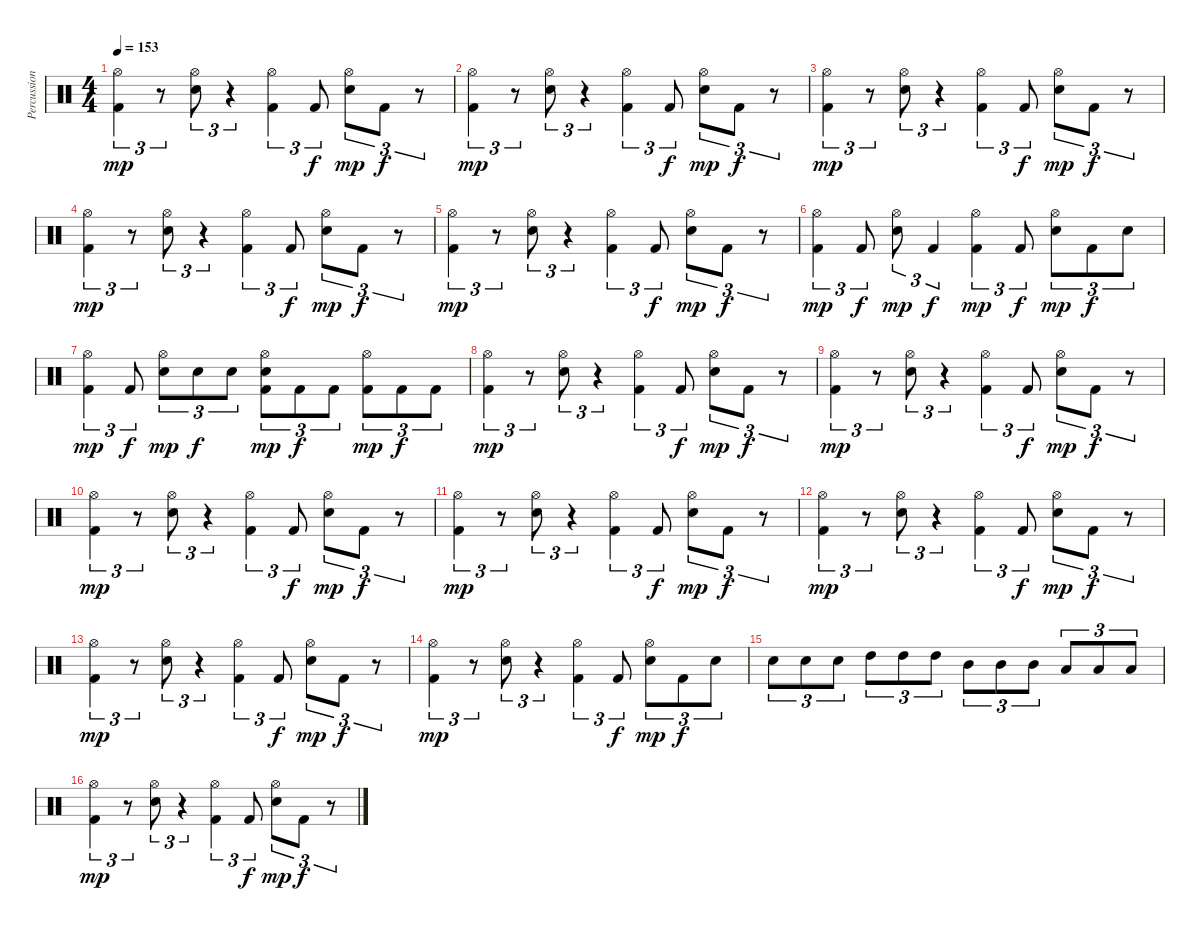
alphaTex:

\track ("Percussion" "Percussion") {instrument percussion}
\staff {score}
\articulation defaults
\ts (4 4)
\tempo 153
\clef neutral
\ks c
("Hi-Hat (open)" "Kick (hit) 2").4{tu (3 2) dy mp} r.8{tu (3 2)} ("Hi-Hat (open)" "Electric Snare (hit)").8{tu (3 2)} r.4{tu (3 2)} ("Hi-Hat (open)" "Kick (hit) 2").4{tu (3 2)} "Kick (hit) 2".8{tu (3 2) dy f} ("Hi-Hat (open)" "Electric Snare (hit)").8{tu (3 2) dy mp} "Kick (hit) 2".8{tu (3 2) dy f} r.8{tu (3 2)} |
("Hi-Hat (open)" "Kick (hit) 2").4{tu (3 2) dy mp} r.8{tu (3 2)} ("Hi-Hat (open)" "Electric Snare (hit)").8{tu (3 2)} r.4{tu (3 2)} ("Hi-Hat (open)" "Kick (hit) 2").4{tu (3 2)} "Kick (hit) 2".8{tu (3 2) dy f} ("Hi-Hat (open)" "Electric Snare (hit)").8{tu (3 2) dy mp} "Kick (hit) 2".8{tu (3 2) dy f} r.8{tu (3 2)} |
("Hi-Hat (open)" "Kick (hit) 2").4{tu (3 2) dy mp} r.8{tu (3 2)} ("Hi-Hat (open)" "Electric Snare (hit)").8{tu (3 2)} r.4{tu (3 2)} ("Hi-Hat (open)" "Kick (hit) 2").4{tu (3 2)} "Kick (hit) 2".8{tu (3 2) dy f} ("Hi-Hat (open)" "Electric Snare (hit)").8{tu (3 2) dy mp} "Kick (hit) 2".8{tu (3 2) dy f} r.8{tu (3 2)} |
("Hi-Hat (open)" "Kick (hit) 2").4{tu (3 2) dy mp} r.8{tu (3 2)} ("Hi-Hat (open)" "Electric Snare (hit)").8{tu (3 2)} r.4{tu (3 2)} ("Hi-Hat (open)" "Kick (hit) 2").4{tu (3 2)} "Kick (hit) 2".8{tu (3 2) dy f} ("Hi-Hat (open)" "Electric Snare (hit)").8{tu (3 2) dy mp} "Kick (hit) 2".8{tu (3 2) dy f} r.8{tu (3 2)} |
("Hi-Hat (open)" "Kick (hit) 2").4{tu (3 2) dy mp} r.8{tu (3 2)} ("Hi-Hat (open)" "Electric Snare (hit)").8{tu (3 2)} r.4{tu (3 2)} ("Hi-Hat (open)" "Kick (hit) 2").4{tu (3 2)} "Kick (hit) 2".8{tu (3 2) dy f} ("Hi-Hat (open)" "Electric Snare (hit)").8{tu (3 2) dy mp} "Kick (hit) 2".8{tu (3 2) dy f} r.8{tu (3 2)} |
("Hi-Hat (open)" "Kick (hit) 2").4{tu (3 2) dy mp} "Kick (hit) 2".8{tu (3 2) dy f} ("Hi-Hat (open)" "Electric Snare (hit)").8{tu (3 2) dy mp} "Kick (hit) 2".4{tu (3 2) dy f} ("Hi-Hat (open)" "Kick (hit) 2").4{tu (3 2) dy mp} "Kick (hit) 2".8{tu (3 2) dy f} ("Hi-Hat (open)" "Electric Snare (hit)").8{tu (3 2) dy mp} "Kick (hit) 2".8{tu (3 2) dy f} "Electric Snare (hit)".8{tu (3 2)} |
("Hi-Hat (open)" "Kick (hit) 2").4{tu (3 2) dy mp} "Kick (hit) 2".8{tu (3 2) dy f} ("Hi-Hat (open)" "Electric Snare (hit)").8{tu (3 2) dy mp} "Electric Snare (hit)".8{tu (3 2) dy f} "Electric Snare (hit)".8{tu (3 2)} ("Hi-Hat (open)" "Electric Snare (hit)" "Kick (hit) 2").8{tu (3 2) dy mp} "Kick (hit) 2".8{tu (3 2) dy f} "Kick (hit) 2".8{tu (3 2)} ("Hi-Hat (open)" "Kick (hit) 2").8{tu (3 2) dy mp} "Kick (hit) 2".8{tu (3 2) dy f} "Kick (hit) 2".8{tu (3 2)} |
("Hi-Hat (open)" "Kick (hit) 2").4{tu (3 2) dy mp} r.8{tu (3 2)} ("Hi-Hat (open)" "Electric Snare (hit)").8{tu (3 2)} r.4{tu (3 2)} ("Hi-Hat (open)" "Kick (hit) 2").4{tu (3 2)} "Kick (hit) 2".8{tu (3 2) dy f} ("Hi-Hat (open)" "Electric Snare (hit)").8{tu (3 2) dy mp} "Kick (hit) 2".8{tu (3 2) dy f} r.8{tu (3 2)} |
("Hi-Hat (open)" "Kick (hit) 2").4{tu (3 2) dy mp} r.8{tu (3 2)} ("Hi-Hat (open)" "Electric Snare (hit)").8{tu (3 2)} r.4{tu (3 2)} ("Hi-Hat (open)" "Kick (hit) 2").4{tu (3 2)} "Kick (hit) 2".8{tu (3 2) dy f} ("Hi-Hat (open)" "Electric Snare (hit)").8{tu (3 2) dy mp} "Kick (hit) 2".8{tu (3 2) dy f} r.8{tu (3 2)} |
("Hi-Hat (open)" "Kick (hit) 2").4{tu (3 2) dy mp} r.8{tu (3 2)} ("Hi-Hat (open)" "Electric Snare (hit)").8{tu (3 2)} r.4{tu (3 2)} ("Hi-Hat (open)" "Kick (hit) 2").4{tu (3 2)} "Kick (hit) 2".8{tu (3 2) dy f} ("Hi-Hat (open)" "Electric Snare (hit)").8{tu (3 2) dy mp} "Kick (hit) 2".8{tu (3 2) dy f} r.8{tu (3 2)} |
("Hi-Hat (open)" "Kick (hit) 2").4{tu (3 2) dy mp} r.8{tu (3 2)} ("Hi-Hat (open)" "Electric Snare (hit)").8{tu (3 2)} r.4{tu (3 2)} ("Hi-Hat (open)" "Kick (hit) 2").4{tu (3 2)} "Kick (hit) 2".8{tu (3 2) dy f} ("Hi-Hat (open)" "Electric Snare (hit)").8{tu (3 2) dy mp} "Kick (hit) 2".8{tu (3 2) dy f} r.8{tu (3 2)} |
("Hi-Hat (open)" "Kick (hit) 2").4{tu (3 2) dy mp} r.8{tu (3 2)} ("Hi-Hat (open)" "Electric Snare (hit)").8{tu (3 2)} r.4{tu (3 2)} ("Hi-Hat (open)" "Kick (hit) 2").4{tu (3 2)} "Kick (hit) 2".8{tu (3 2) dy f} ("Hi-Hat (open)" "Electric Snare (hit)").8{tu (3 2) dy mp} "Kick (hit) 2".8{tu (3 2) dy f} r.8{tu (3 2)} |
("Hi-Hat (open)" "Kick (hit) 2").4{tu (3 2) dy mp} r.8{tu (3 2)} ("Hi-Hat (open)" "Electric Snare (hit)").8{tu (3 2)} r.4{tu (3 2)} ("Hi-Hat (open)" "Kick (hit) 2").4{tu (3 2)} "Kick (hit) 2".8{tu (3 2) dy f} ("Hi-Hat (open)" "Electric Snare (hit)").8{tu (3 2) dy mp} "Kick (hit) 2".8{tu (3 2) dy f} r.8{tu (3 2)} |
("Hi-Hat (open)" "Kick (hit) 2").4{tu (3 2) dy mp} r.8{tu (3 2)} ("Hi-Hat (open)" "Electric Snare (hit)").8{tu (3 2)} r.4{tu (3 2)} ("Hi-Hat (open)" "Kick (hit) 2").4{tu (3 2)} "Kick (hit) 2".8{tu (3 2) dy f} ("Hi-Hat (open)" "Electric Snare (hit)").8{tu (3 2) dy mp} "Kick (hit) 2".8{tu (3 2) dy f} "Electric Snare (hit)".8{tu (3 2)} |
"Electric Snare (hit)".8{tu (3 2)} "Electric Snare (hit)".8{tu (3 2)} "Electric Snare (hit)".8{tu (3 2)} "High Tom (hit)".8{tu (3 2)} "High Tom (hit)".8{tu (3 2)} "High Tom (hit)".8{tu (3 2)} "Mid Tom (hit)".8{tu (3 2)} "Mid Tom (hit)".8{tu (3 2)} "Mid Tom (hit)".8{tu (3 2)} "Low Tom (hit)".8{tu (3 2)} "Low Tom (hit)".8{tu (3 2)} "Low Tom (hit)".8{tu (3 2)} |
("Hi-Hat (open)" "Kick (hit) 2").4{tu (3 2) dy mp} r.8{tu (3 2)} ("Hi-Hat (open)" "Electric Snare (hit)").8{tu (3 2)} r.4{tu (3 2)} ("Hi-Hat (open)" "Kick (hit) 2").4{tu (3 2)} "Kick (hit) 2".8{tu (3 2) dy f} ("Hi-Hat (open)" "Electric Snare (hit)").8{tu (3 2) dy mp} "Kick (hit) 2".8{tu (3 2) dy f} r.8{tu (3 2)}
